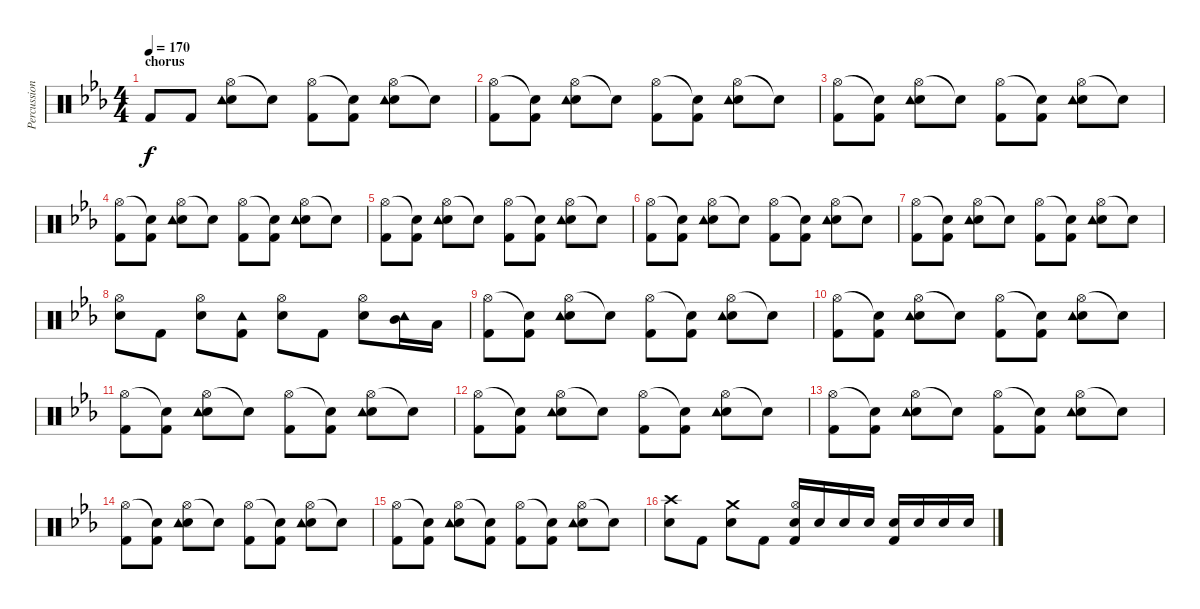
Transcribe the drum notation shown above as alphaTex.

\track ("Percussion" "Percussion") {instrument percussion}
\staff {score}
\articulation defaults
\ts (4 4)
\section ("" "chorus")
\tempo 170
\clef neutral
\ks cminor "Kick (hit) 2".8{dy f} "Kick (hit) 2".8
("Hi-Hat (open)" "Electric Snare (hit)" "Tambourine (hit)").8 "Snare (hit)"{t}.8 ("Hi-Hat (open)" "Kick (hit) 2").8 ("Snare (hit)"{t} "Kick (hit) 2").8 ("Hi-Hat (open)" "Electric Snare (hit)" "Tambourine (hit)").8 "Snare (hit)"{t}.8 |
("Hi-Hat (open)" "Kick (hit) 2").8 ("Snare (hit)"{t} "Kick (hit) 2").8 ("Hi-Hat (open)" "Electric Snare (hit)" "Tambourine (hit)").8 "Snare (hit)"{t}.8 ("Hi-Hat (open)" "Kick (hit) 2").8 ("Snare (hit)"{t} "Kick (hit) 2").8 ("Hi-Hat (open)" "Electric Snare (hit)" "Tambourine (hit)").8 "Snare (hit)"{t}.8 |
("Hi-Hat (open)" "Kick (hit) 2").8 ("Snare (hit)"{t} "Kick (hit) 2").8 ("Hi-Hat (open)" "Electric Snare (hit)" "Tambourine (hit)").8 "Snare (hit)"{t}.8 ("Hi-Hat (open)" "Kick (hit) 2").8 ("Snare (hit)"{t} "Kick (hit) 2").8 ("Hi-Hat (open)" "Electric Snare (hit)" "Tambourine (hit)").8 "Snare (hit)"{t}.8 |
("Hi-Hat (open)" "Kick (hit) 2").8 ("Snare (hit)"{t} "Kick (hit) 2").8 ("Hi-Hat (open)" "Electric Snare (hit)" "Tambourine (hit)").8 "Snare (hit)"{t}.8 ("Hi-Hat (open)" "Kick (hit) 2").8 ("Snare (hit)"{t} "Kick (hit) 2").8 ("Hi-Hat (open)" "Electric Snare (hit)" "Tambourine (hit)").8 "Snare (hit)"{t}.8 |
("Hi-Hat (open)" "Kick (hit) 2").8 ("Snare (hit)"{t} "Kick (hit) 2").8 ("Hi-Hat (open)" "Electric Snare (hit)" "Tambourine (hit)").8 "Snare (hit)"{t}.8 ("Hi-Hat (open)" "Kick (hit) 2").8 ("Snare (hit)"{t} "Kick (hit) 2").8 ("Hi-Hat (open)" "Electric Snare (hit)" "Tambourine (hit)").8 "Snare (hit)"{t}.8 |
("Hi-Hat (open)" "Kick (hit) 2").8 ("Snare (hit)"{t} "Kick (hit) 2").8 ("Hi-Hat (open)" "Electric Snare (hit)" "Tambourine (hit)").8 "Snare (hit)"{t}.8 ("Hi-Hat (open)" "Kick (hit) 2").8 ("Snare (hit)"{t} "Kick (hit) 2").8 ("Hi-Hat (open)" "Electric Snare (hit)" "Tambourine (hit)").8 "Snare (hit)"{t}.8 |
("Hi-Hat (open)" "Kick (hit) 2").8 ("Snare (hit)"{t} "Kick (hit) 2").8 ("Hi-Hat (open)" "Electric Snare (hit)" "Tambourine (hit)").8 "Snare (hit)"{t}.8 ("Hi-Hat (open)" "Kick (hit) 2").8 ("Snare (hit)"{t} "Kick (hit) 2").8 ("Hi-Hat (open)" "Electric Snare (hit)" "Tambourine (hit)").8 "Snare (hit)"{t}.8 |
("Hi-Hat (open)" "Electric Snare (hit)").8 "Kick (hit) 2".8 ("Hi-Hat (open)" "Electric Snare (hit)").8 ("Kick (hit) 2" "Tambourine (hit)").8 ("Hi-Hat (open)" "Electric Snare (hit)").8 "Kick (hit) 2".8 ("Hi-Hat (open)" "Electric Snare (hit)").8 ("Mid Tom (hit)" "Tambourine (hit)").16 "Low Tom (hit)".16 |
("Hi-Hat (open)" "Kick (hit) 2").8 ("Snare (hit)"{t} "Kick (hit) 2").8 ("Hi-Hat (open)" "Electric Snare (hit)" "Tambourine (hit)").8 "Snare (hit)"{t}.8 ("Hi-Hat (open)" "Kick (hit) 2").8 ("Snare (hit)"{t} "Kick (hit) 2").8 ("Hi-Hat (open)" "Electric Snare (hit)" "Tambourine (hit)").8 "Snare (hit)"{t}.8 |
("Hi-Hat (open)" "Kick (hit) 2").8 ("Snare (hit)"{t} "Kick (hit) 2").8 ("Hi-Hat (open)" "Electric Snare (hit)" "Tambourine (hit)").8 "Snare (hit)"{t}.8 ("Hi-Hat (open)" "Kick (hit) 2").8 ("Snare (hit)"{t} "Kick (hit) 2").8 ("Hi-Hat (open)" "Electric Snare (hit)" "Tambourine (hit)").8 "Snare (hit)"{t}.8 |
("Hi-Hat (open)" "Kick (hit) 2").8 ("Snare (hit)"{t} "Kick (hit) 2").8 ("Hi-Hat (open)" "Electric Snare (hit)" "Tambourine (hit)").8 "Snare (hit)"{t}.8 ("Hi-Hat (open)" "Kick (hit) 2").8 ("Snare (hit)"{t} "Kick (hit) 2").8 ("Hi-Hat (open)" "Electric Snare (hit)" "Tambourine (hit)").8 "Snare (hit)"{t}.8 |
("Hi-Hat (open)" "Kick (hit) 2").8 ("Snare (hit)"{t} "Kick (hit) 2").8 ("Hi-Hat (open)" "Electric Snare (hit)" "Tambourine (hit)").8 "Snare (hit)"{t}.8 ("Hi-Hat (open)" "Kick (hit) 2").8 ("Snare (hit)"{t} "Kick (hit) 2").8 ("Hi-Hat (open)" "Electric Snare (hit)" "Tambourine (hit)").8 "Snare (hit)"{t}.8 |
("Hi-Hat (open)" "Kick (hit) 2").8 ("Snare (hit)"{t} "Kick (hit) 2").8 ("Hi-Hat (open)" "Electric Snare (hit)" "Tambourine (hit)").8 "Snare (hit)"{t}.8 ("Hi-Hat (open)" "Kick (hit) 2").8 ("Snare (hit)"{t} "Kick (hit) 2").8 ("Hi-Hat (open)" "Electric Snare (hit)" "Tambourine (hit)").8 "Snare (hit)"{t}.8 |
("Hi-Hat (open)" "Kick (hit) 2").8 ("Snare (hit)"{t} "Kick (hit) 2").8 ("Hi-Hat (open)" "Electric Snare (hit)" "Tambourine (hit)").8 "Snare (hit)"{t}.8 ("Hi-Hat (open)" "Kick (hit) 2").8 ("Snare (hit)"{t} "Kick (hit) 2").8 ("Hi-Hat (open)" "Electric Snare (hit)" "Tambourine (hit)").8 "Snare (hit)"{t}.8 |
("Hi-Hat (open)" "Kick (hit) 2").8 ("Snare (hit)"{t} "Kick (hit) 2").8 ("Hi-Hat (open)" "Electric Snare (hit)" "Tambourine (hit)").8 ("Snare (hit)"{t} "Kick (hit) 2").8 ("Hi-Hat (open)" "Kick (hit) 2").8 ("Snare (hit)"{t} "Kick (hit) 2").8 ("Hi-Hat (open)" "Electric Snare (hit)" "Tambourine (hit)").8 "Snare (hit)"{t}.8 |
("Crash high (hit)" "Electric Snare (hit)").8 "Kick (hit) 2".8 ("Crash medium (hit)" "Electric Snare (hit)").8 "Kick (hit) 2".8 ("Hi-Hat (open)" "Electric Snare (hit)" "Kick (hit) 2").16 "Electric Snare (hit)".16 "Electric Snare (hit)".16 "Electric Snare (hit)".16 ("Electric Snare (hit)" "Kick (hit) 2").16 "Electric Snare (hit)".16 "Electric Snare (hit)".16 "Electric Snare (hit)".16
